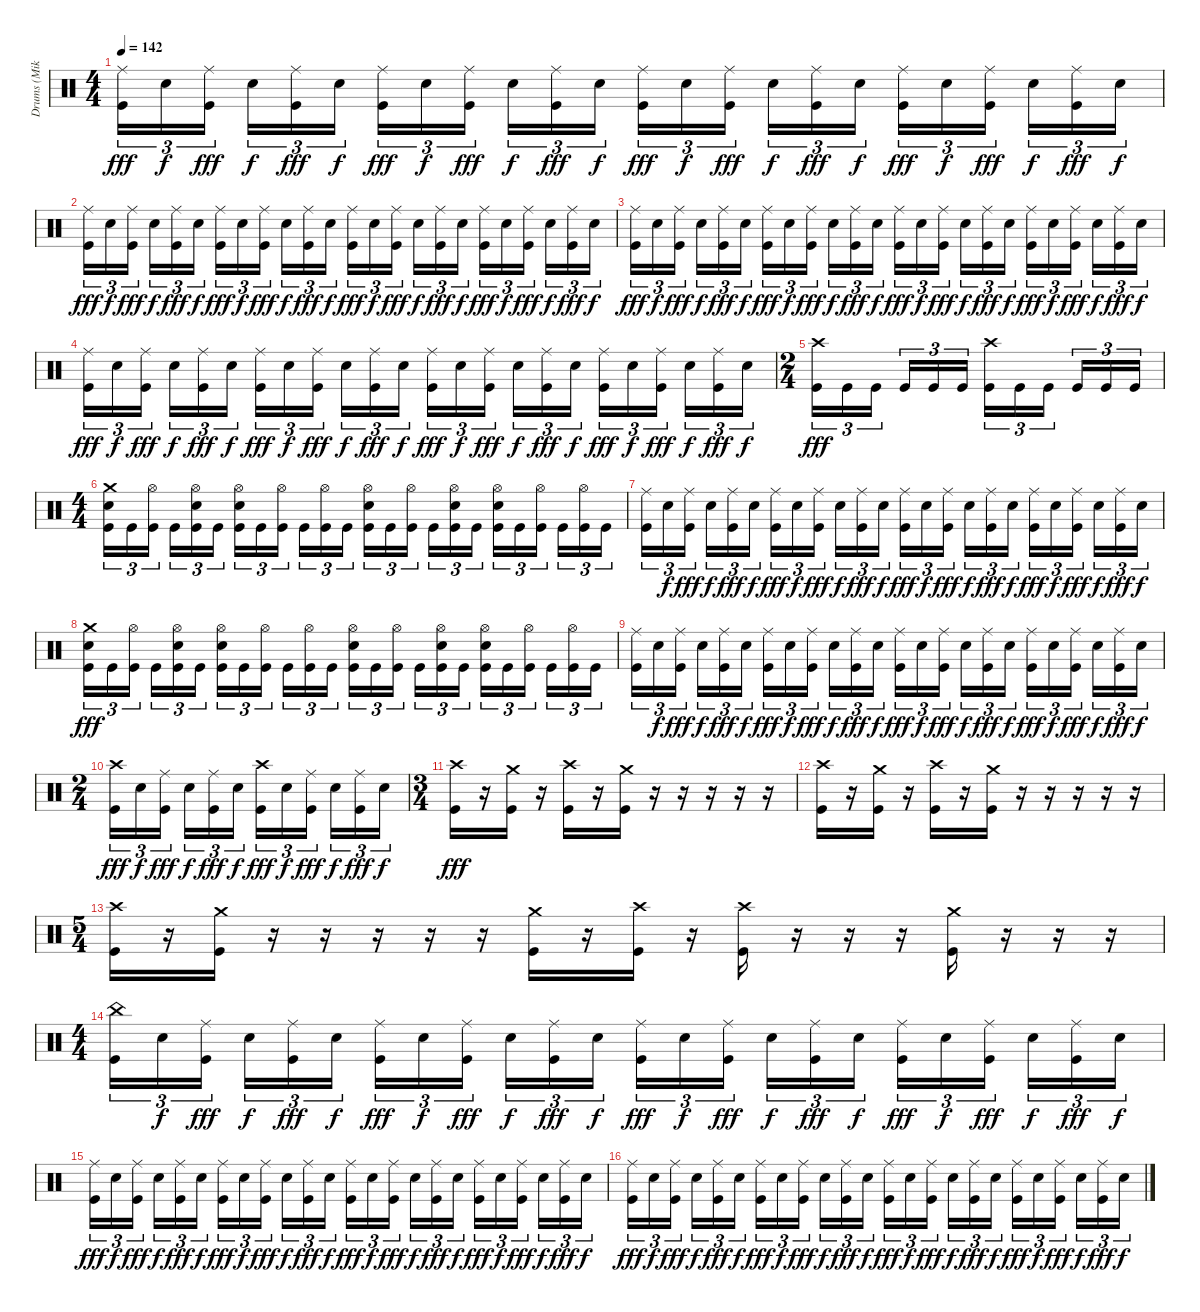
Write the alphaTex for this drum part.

\track ("Drums (Mike)" "Drums (Mik") {instrument percussion}
\staff {score}
\articulation defaults
\ts (4 4)
\tempo 142
\clef neutral
\ks c
("Ride (middle)" "Kick (hit)").16{tu (3 2) dy fff} "Electric Snare (hit)".16{tu (3 2) dy f} ("Ride (middle)" "Kick (hit)").16{tu (3 2) dy fff} "Electric Snare (hit)".16{tu (3 2) dy f} ("Ride (middle)" "Kick (hit)").16{tu (3 2) dy fff} "Electric Snare (hit)".16{tu (3 2) dy f} ("Ride (middle)" "Kick (hit)").16{tu (3 2) dy fff} "Electric Snare (hit)".16{tu (3 2) dy f} ("Ride (middle)" "Kick (hit)").16{tu (3 2) dy fff} "Electric Snare (hit)".16{tu (3 2) dy f} ("Ride (middle)" "Kick (hit)").16{tu (3 2) dy fff} "Electric Snare (hit)".16{tu (3 2) dy f} ("Ride (middle)" "Kick (hit)").16{tu (3 2) dy fff} "Electric Snare (hit)".16{tu (3 2) dy f} ("Ride (middle)" "Kick (hit)").16{tu (3 2) dy fff} "Electric Snare (hit)".16{tu (3 2) dy f} ("Ride (middle)" "Kick (hit)").16{tu (3 2) dy fff} "Electric Snare (hit)".16{tu (3 2) dy f} ("Ride (middle)" "Kick (hit)").16{tu (3 2) dy fff} "Electric Snare (hit)".16{tu (3 2) dy f} ("Ride (middle)" "Kick (hit)").16{tu (3 2) dy fff} "Electric Snare (hit)".16{tu (3 2) dy f} ("Ride (middle)" "Kick (hit)").16{tu (3 2) dy fff} "Electric Snare (hit)".16{tu (3 2) dy f} |
("Ride (middle)" "Kick (hit)").16{tu (3 2) dy fff} "Electric Snare (hit)".16{tu (3 2) dy f} ("Ride (middle)" "Kick (hit)").16{tu (3 2) dy fff} "Electric Snare (hit)".16{tu (3 2) dy f} ("Ride (middle)" "Kick (hit)").16{tu (3 2) dy fff} "Electric Snare (hit)".16{tu (3 2) dy f} ("Ride (middle)" "Kick (hit)").16{tu (3 2) dy fff} "Electric Snare (hit)".16{tu (3 2) dy f} ("Ride (middle)" "Kick (hit)").16{tu (3 2) dy fff} "Electric Snare (hit)".16{tu (3 2) dy f} ("Ride (middle)" "Kick (hit)").16{tu (3 2) dy fff} "Electric Snare (hit)".16{tu (3 2) dy f} ("Ride (middle)" "Kick (hit)").16{tu (3 2) dy fff} "Electric Snare (hit)".16{tu (3 2) dy f} ("Ride (middle)" "Kick (hit)").16{tu (3 2) dy fff} "Electric Snare (hit)".16{tu (3 2) dy f} ("Ride (middle)" "Kick (hit)").16{tu (3 2) dy fff} "Electric Snare (hit)".16{tu (3 2) dy f} ("Ride (middle)" "Kick (hit)").16{tu (3 2) dy fff} "Electric Snare (hit)".16{tu (3 2) dy f} ("Ride (middle)" "Kick (hit)").16{tu (3 2) dy fff} "Electric Snare (hit)".16{tu (3 2) dy f} ("Ride (middle)" "Kick (hit)").16{tu (3 2) dy fff} "Electric Snare (hit)".16{tu (3 2) dy f} |
("Ride (middle)" "Kick (hit)").16{tu (3 2) dy fff} "Electric Snare (hit)".16{tu (3 2) dy f} ("Ride (middle)" "Kick (hit)").16{tu (3 2) dy fff} "Electric Snare (hit)".16{tu (3 2) dy f} ("Ride (middle)" "Kick (hit)").16{tu (3 2) dy fff} "Electric Snare (hit)".16{tu (3 2) dy f} ("Ride (middle)" "Kick (hit)").16{tu (3 2) dy fff} "Electric Snare (hit)".16{tu (3 2) dy f} ("Ride (middle)" "Kick (hit)").16{tu (3 2) dy fff} "Electric Snare (hit)".16{tu (3 2) dy f} ("Ride (middle)" "Kick (hit)").16{tu (3 2) dy fff} "Electric Snare (hit)".16{tu (3 2) dy f} ("Ride (middle)" "Kick (hit)").16{tu (3 2) dy fff} "Electric Snare (hit)".16{tu (3 2) dy f} ("Ride (middle)" "Kick (hit)").16{tu (3 2) dy fff} "Electric Snare (hit)".16{tu (3 2) dy f} ("Ride (middle)" "Kick (hit)").16{tu (3 2) dy fff} "Electric Snare (hit)".16{tu (3 2) dy f} ("Ride (middle)" "Kick (hit)").16{tu (3 2) dy fff} "Electric Snare (hit)".16{tu (3 2) dy f} ("Ride (middle)" "Kick (hit)").16{tu (3 2) dy fff} "Electric Snare (hit)".16{tu (3 2) dy f} ("Ride (middle)" "Kick (hit)").16{tu (3 2) dy fff} "Electric Snare (hit)".16{tu (3 2) dy f} |
("Ride (middle)" "Kick (hit)").16{tu (3 2) dy fff} "Electric Snare (hit)".16{tu (3 2) dy f} ("Ride (middle)" "Kick (hit)").16{tu (3 2) dy fff} "Electric Snare (hit)".16{tu (3 2) dy f} ("Ride (middle)" "Kick (hit)").16{tu (3 2) dy fff} "Electric Snare (hit)".16{tu (3 2) dy f} ("Ride (middle)" "Kick (hit)").16{tu (3 2) dy fff} "Electric Snare (hit)".16{tu (3 2) dy f} ("Ride (middle)" "Kick (hit)").16{tu (3 2) dy fff} "Electric Snare (hit)".16{tu (3 2) dy f} ("Ride (middle)" "Kick (hit)").16{tu (3 2) dy fff} "Electric Snare (hit)".16{tu (3 2) dy f} ("Ride (middle)" "Kick (hit)").16{tu (3 2) dy fff} "Electric Snare (hit)".16{tu (3 2) dy f} ("Ride (middle)" "Kick (hit)").16{tu (3 2) dy fff} "Electric Snare (hit)".16{tu (3 2) dy f} ("Ride (middle)" "Kick (hit)").16{tu (3 2) dy fff} "Electric Snare (hit)".16{tu (3 2) dy f} ("Ride (middle)" "Kick (hit)").16{tu (3 2) dy fff} "Electric Snare (hit)".16{tu (3 2) dy f} ("Ride (middle)" "Kick (hit)").16{tu (3 2) dy fff} "Electric Snare (hit)".16{tu (3 2) dy f} ("Ride (middle)" "Kick (hit)").16{tu (3 2) dy fff} "Electric Snare (hit)".16{tu (3 2) dy f} |
\ts (2 4)
("Crash high (hit)" "Kick (hit)").16{tu (3 2) dy fff} "Kick (hit)".16{tu (3 2)} "Kick (hit)".16{tu (3 2)} "Kick (hit)".16{tu (3 2)} "Kick (hit)".16{tu (3 2)} "Kick (hit)".16{tu (3 2)} ("Crash high (hit)" "Kick (hit)").16{tu (3 2)} "Kick (hit)".16{tu (3 2)} "Kick (hit)".16{tu (3 2)} "Kick (hit)".16{tu (3 2)} "Kick (hit)".16{tu (3 2)} "Kick (hit)".16{tu (3 2)} |
\ts (4 4)
("Crash medium (hit)" "Electric Snare (hit)" "Kick (hit)").16{tu (3 2)} "Kick (hit)".16{tu (3 2)} ("Hi-Hat (open)" "Kick (hit)").16{tu (3 2)} "Kick (hit)".16{tu (3 2)} ("Hi-Hat (open)" "Electric Snare (hit)" "Kick (hit)").16{tu (3 2)} "Kick (hit)".16{tu (3 2)} ("Hi-Hat (open)" "Electric Snare (hit)" "Kick (hit)").16{tu (3 2)} "Kick (hit)".16{tu (3 2)} ("Hi-Hat (open)" "Kick (hit)").16{tu (3 2)} "Kick (hit)".16{tu (3 2)} ("Hi-Hat (open)" "Kick (hit)").16{tu (3 2)} "Kick (hit)".16{tu (3 2)} ("Hi-Hat (open)" "Electric Snare (hit)" "Kick (hit)").16{tu (3 2)} "Kick (hit)".16{tu (3 2)} ("Hi-Hat (open)" "Kick (hit)").16{tu (3 2)} "Kick (hit)".16{tu (3 2)} ("Hi-Hat (open)" "Electric Snare (hit)" "Kick (hit)").16{tu (3 2)} "Kick (hit)".16{tu (3 2)} ("Hi-Hat (open)" "Electric Snare (hit)" "Kick (hit)").16{tu (3 2)} "Kick (hit)".16{tu (3 2)} ("Hi-Hat (open)" "Kick (hit)").16{tu (3 2)} "Kick (hit)".16{tu (3 2)} ("Hi-Hat (open)" "Kick (hit)").16{tu (3 2)} "Kick (hit)".16{tu (3 2)} |
("Ride (middle)" "Kick (hit)").16{tu (3 2)} "Electric Snare (hit)".16{tu (3 2) dy f} ("Ride (middle)" "Kick (hit)").16{tu (3 2) dy fff} "Electric Snare (hit)".16{tu (3 2) dy f} ("Ride (middle)" "Kick (hit)").16{tu (3 2) dy fff} "Electric Snare (hit)".16{tu (3 2) dy f} ("Ride (middle)" "Kick (hit)").16{tu (3 2) dy fff} "Electric Snare (hit)".16{tu (3 2) dy f} ("Ride (middle)" "Kick (hit)").16{tu (3 2) dy fff} "Electric Snare (hit)".16{tu (3 2) dy f} ("Ride (middle)" "Kick (hit)").16{tu (3 2) dy fff} "Electric Snare (hit)".16{tu (3 2) dy f} ("Ride (middle)" "Kick (hit)").16{tu (3 2) dy fff} "Electric Snare (hit)".16{tu (3 2) dy f} ("Ride (middle)" "Kick (hit)").16{tu (3 2) dy fff} "Electric Snare (hit)".16{tu (3 2) dy f} ("Ride (middle)" "Kick (hit)").16{tu (3 2) dy fff} "Electric Snare (hit)".16{tu (3 2) dy f} ("Ride (middle)" "Kick (hit)").16{tu (3 2) dy fff} "Electric Snare (hit)".16{tu (3 2) dy f} ("Ride (middle)" "Kick (hit)").16{tu (3 2) dy fff} "Electric Snare (hit)".16{tu (3 2) dy f} ("Ride (middle)" "Kick (hit)").16{tu (3 2) dy fff} "Electric Snare (hit)".16{tu (3 2) dy f} |
("Crash medium (hit)" "Electric Snare (hit)" "Kick (hit)").16{tu (3 2) dy fff} "Kick (hit)".16{tu (3 2)} ("Hi-Hat (open)" "Kick (hit)").16{tu (3 2)} "Kick (hit)".16{tu (3 2)} ("Hi-Hat (open)" "Electric Snare (hit)" "Kick (hit)").16{tu (3 2)} "Kick (hit)".16{tu (3 2)} ("Hi-Hat (open)" "Electric Snare (hit)" "Kick (hit)").16{tu (3 2)} "Kick (hit)".16{tu (3 2)} ("Hi-Hat (open)" "Kick (hit)").16{tu (3 2)} "Kick (hit)".16{tu (3 2)} ("Hi-Hat (open)" "Kick (hit)").16{tu (3 2)} "Kick (hit)".16{tu (3 2)} ("Hi-Hat (open)" "Electric Snare (hit)" "Kick (hit)").16{tu (3 2)} "Kick (hit)".16{tu (3 2)} ("Hi-Hat (open)" "Kick (hit)").16{tu (3 2)} "Kick (hit)".16{tu (3 2)} ("Hi-Hat (open)" "Electric Snare (hit)" "Kick (hit)").16{tu (3 2)} "Kick (hit)".16{tu (3 2)} ("Hi-Hat (open)" "Electric Snare (hit)" "Kick (hit)").16{tu (3 2)} "Kick (hit)".16{tu (3 2)} ("Hi-Hat (open)" "Kick (hit)").16{tu (3 2)} "Kick (hit)".16{tu (3 2)} ("Hi-Hat (open)" "Kick (hit)").16{tu (3 2)} "Kick (hit)".16{tu (3 2)} |
("Ride (middle)" "Kick (hit)").16{tu (3 2)} "Electric Snare (hit)".16{tu (3 2) dy f} ("Ride (middle)" "Kick (hit)").16{tu (3 2) dy fff} "Electric Snare (hit)".16{tu (3 2) dy f} ("Ride (middle)" "Kick (hit)").16{tu (3 2) dy fff} "Electric Snare (hit)".16{tu (3 2) dy f} ("Ride (middle)" "Kick (hit)").16{tu (3 2) dy fff} "Electric Snare (hit)".16{tu (3 2) dy f} ("Ride (middle)" "Kick (hit)").16{tu (3 2) dy fff} "Electric Snare (hit)".16{tu (3 2) dy f} ("Ride (middle)" "Kick (hit)").16{tu (3 2) dy fff} "Electric Snare (hit)".16{tu (3 2) dy f} ("Ride (middle)" "Kick (hit)").16{tu (3 2) dy fff} "Electric Snare (hit)".16{tu (3 2) dy f} ("Ride (middle)" "Kick (hit)").16{tu (3 2) dy fff} "Electric Snare (hit)".16{tu (3 2) dy f} ("Ride (middle)" "Kick (hit)").16{tu (3 2) dy fff} "Electric Snare (hit)".16{tu (3 2) dy f} ("Ride (middle)" "Kick (hit)").16{tu (3 2) dy fff} "Electric Snare (hit)".16{tu (3 2) dy f} ("Ride (middle)" "Kick (hit)").16{tu (3 2) dy fff} "Electric Snare (hit)".16{tu (3 2) dy f} ("Ride (middle)" "Kick (hit)").16{tu (3 2) dy fff} "Electric Snare (hit)".16{tu (3 2) dy f} |
\ts (2 4)
("Crash high (hit)" "Kick (hit)").16{tu (3 2) dy fff} "Electric Snare (hit)".16{tu (3 2) dy f} ("Ride (middle)" "Kick (hit)").16{tu (3 2) dy fff} "Electric Snare (hit)".16{tu (3 2) dy f} ("Ride (middle)" "Kick (hit)").16{tu (3 2) dy fff} "Electric Snare (hit)".16{tu (3 2) dy f} ("Crash high (hit)" "Kick (hit)").16{tu (3 2) dy fff} "Electric Snare (hit)".16{tu (3 2) dy f} ("Ride (middle)" "Kick (hit)").16{tu (3 2) dy fff} "Electric Snare (hit)".16{tu (3 2) dy f} ("Ride (middle)" "Kick (hit)").16{tu (3 2) dy fff} "Electric Snare (hit)".16{tu (3 2) dy f} |
\ts (3 4)
("Crash high (hit)" "Kick (hit)").16{dy fff} r.16 ("Crash medium (hit)" "Kick (hit)").16 r.16 ("Crash high (hit)" "Kick (hit)").16 r.16 ("Crash medium (hit)" "Kick (hit)").16 r.16 r.16 r.16 r.16 r.16 |
("Crash high (hit)" "Kick (hit)").16 r.16 ("Crash medium (hit)" "Kick (hit)").16 r.16 ("Crash high (hit)" "Kick (hit)").16 r.16 ("Crash medium (hit)" "Kick (hit)").16 r.16 r.16 r.16 r.16 r.16 |
\ts (5 4)
("Crash high (hit)" "Kick (hit)").16 r.16 ("Crash medium (hit)" "Kick (hit)").16 r.16 r.16 r.16 r.16 r.16 ("Crash medium (hit)" "Kick (hit)").16 r.16 ("Crash high (hit)" "Kick (hit)").16 r.16 ("Crash high (hit)" "Kick (hit)").16 r.16 r.16 r.16 ("Crash medium (hit)" "Kick (hit)").16 r.16 r.16 r.16 |
\ts (4 4)
("China (hit)" "Kick (hit)").16{tu (3 2)} "Electric Snare (hit)".16{tu (3 2) dy f} ("Ride (middle)" "Kick (hit)").16{tu (3 2) dy fff} "Electric Snare (hit)".16{tu (3 2) dy f} ("Ride (middle)" "Kick (hit)").16{tu (3 2) dy fff} "Electric Snare (hit)".16{tu (3 2) dy f} ("Ride (middle)" "Kick (hit)").16{tu (3 2) dy fff} "Electric Snare (hit)".16{tu (3 2) dy f} ("Ride (middle)" "Kick (hit)").16{tu (3 2) dy fff} "Electric Snare (hit)".16{tu (3 2) dy f} ("Ride (middle)" "Kick (hit)").16{tu (3 2) dy fff} "Electric Snare (hit)".16{tu (3 2) dy f} ("Ride (middle)" "Kick (hit)").16{tu (3 2) dy fff} "Electric Snare (hit)".16{tu (3 2) dy f} ("Ride (middle)" "Kick (hit)").16{tu (3 2) dy fff} "Electric Snare (hit)".16{tu (3 2) dy f} ("Ride (middle)" "Kick (hit)").16{tu (3 2) dy fff} "Electric Snare (hit)".16{tu (3 2) dy f} ("Ride (middle)" "Kick (hit)").16{tu (3 2) dy fff} "Electric Snare (hit)".16{tu (3 2) dy f} ("Ride (middle)" "Kick (hit)").16{tu (3 2) dy fff} "Electric Snare (hit)".16{tu (3 2) dy f} ("Ride (middle)" "Kick (hit)").16{tu (3 2) dy fff} "Electric Snare (hit)".16{tu (3 2) dy f} |
("Ride (middle)" "Kick (hit)").16{tu (3 2) dy fff} "Electric Snare (hit)".16{tu (3 2) dy f} ("Ride (middle)" "Kick (hit)").16{tu (3 2) dy fff} "Electric Snare (hit)".16{tu (3 2) dy f} ("Ride (middle)" "Kick (hit)").16{tu (3 2) dy fff} "Electric Snare (hit)".16{tu (3 2) dy f} ("Ride (middle)" "Kick (hit)").16{tu (3 2) dy fff} "Electric Snare (hit)".16{tu (3 2) dy f} ("Ride (middle)" "Kick (hit)").16{tu (3 2) dy fff} "Electric Snare (hit)".16{tu (3 2) dy f} ("Ride (middle)" "Kick (hit)").16{tu (3 2) dy fff} "Electric Snare (hit)".16{tu (3 2) dy f} ("Ride (middle)" "Kick (hit)").16{tu (3 2) dy fff} "Electric Snare (hit)".16{tu (3 2) dy f} ("Ride (middle)" "Kick (hit)").16{tu (3 2) dy fff} "Electric Snare (hit)".16{tu (3 2) dy f} ("Ride (middle)" "Kick (hit)").16{tu (3 2) dy fff} "Electric Snare (hit)".16{tu (3 2) dy f} ("Ride (middle)" "Kick (hit)").16{tu (3 2) dy fff} "Electric Snare (hit)".16{tu (3 2) dy f} ("Ride (middle)" "Kick (hit)").16{tu (3 2) dy fff} "Electric Snare (hit)".16{tu (3 2) dy f} ("Ride (middle)" "Kick (hit)").16{tu (3 2) dy fff} "Electric Snare (hit)".16{tu (3 2) dy f} |
("Ride (middle)" "Kick (hit)").16{tu (3 2) dy fff} "Electric Snare (hit)".16{tu (3 2) dy f} ("Ride (middle)" "Kick (hit)").16{tu (3 2) dy fff} "Electric Snare (hit)".16{tu (3 2) dy f} ("Ride (middle)" "Kick (hit)").16{tu (3 2) dy fff} "Electric Snare (hit)".16{tu (3 2) dy f} ("Ride (middle)" "Kick (hit)").16{tu (3 2) dy fff} "Electric Snare (hit)".16{tu (3 2) dy f} ("Ride (middle)" "Kick (hit)").16{tu (3 2) dy fff} "Electric Snare (hit)".16{tu (3 2) dy f} ("Ride (middle)" "Kick (hit)").16{tu (3 2) dy fff} "Electric Snare (hit)".16{tu (3 2) dy f} ("Ride (middle)" "Kick (hit)").16{tu (3 2) dy fff} "Electric Snare (hit)".16{tu (3 2) dy f} ("Ride (middle)" "Kick (hit)").16{tu (3 2) dy fff} "Electric Snare (hit)".16{tu (3 2) dy f} ("Ride (middle)" "Kick (hit)").16{tu (3 2) dy fff} "Electric Snare (hit)".16{tu (3 2) dy f} ("Ride (middle)" "Kick (hit)").16{tu (3 2) dy fff} "Electric Snare (hit)".16{tu (3 2) dy f} ("Ride (middle)" "Kick (hit)").16{tu (3 2) dy fff} "Electric Snare (hit)".16{tu (3 2) dy f} ("Ride (middle)" "Kick (hit)").16{tu (3 2) dy fff} "Electric Snare (hit)".16{tu (3 2) dy f}
